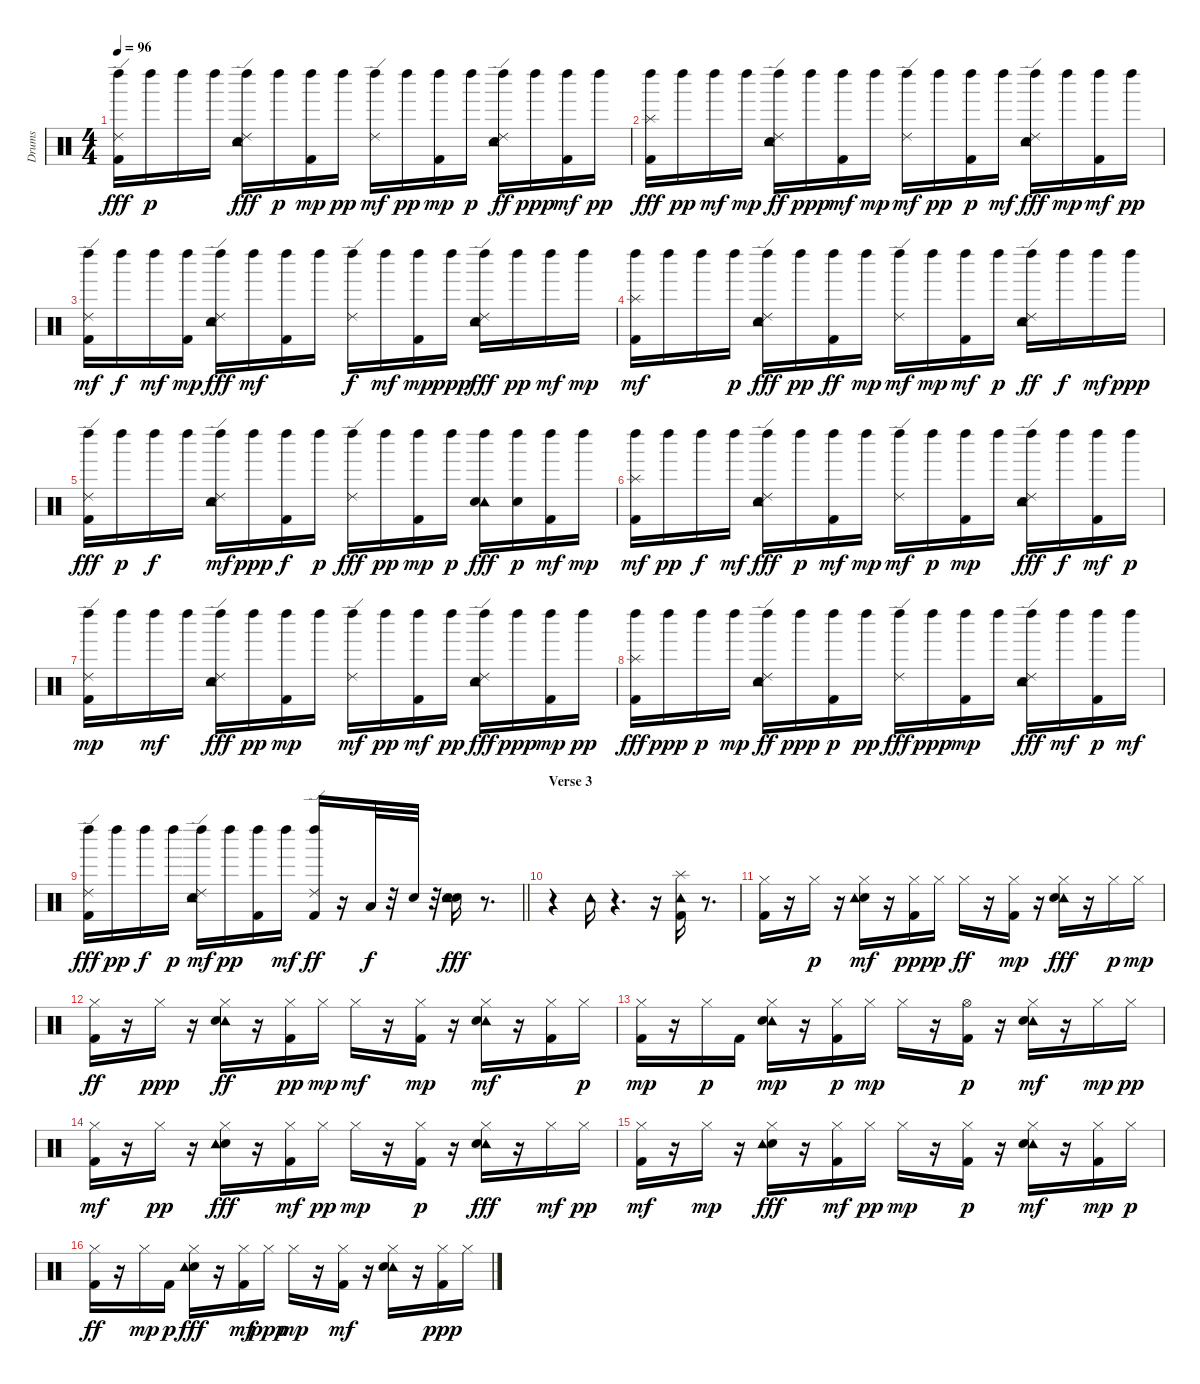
\track ("Drums" "Drums") {instrument percussion}
\staff {score}
\articulation defaults
\ts (4 4)
\tempo 96
\clef neutral
\ks c
("Ride (edge) 2" "Left Maraca (hit)" "Kick (hit) 2").16{dy fff} "Left Maraca (hit)".16{dy p} "Left Maraca (hit)".16 "Left Maraca (hit)".16 ("Left Maraca (hit)" "Electric Snare (hit)" "Tambourine (hit)" "Ride (edge) 2").16{dy fff} "Left Maraca (hit)".16{dy p} ("Kick (hit) 2" "Left Maraca (hit)").16{dy mp} "Left Maraca (hit)".16{dy pp} ("Ride (edge) 2" "Left Maraca (hit)").16{dy mf} "Left Maraca (hit)".16{dy pp} ("Kick (hit) 2" "Left Maraca (hit)").16{dy mp} "Left Maraca (hit)".16{dy p} ("Ride (edge) 2" "Tambourine (hit)" "Electric Snare (hit)" "Left Maraca (hit)").16{dy ff} "Left Maraca (hit)".16{dy ppp} ("Kick (hit) 2" "Left Maraca (hit)").16{dy mf} "Left Maraca (hit)".16{dy pp} |
("Left Maraca (hit)" "Splash (hit)" "Kick (hit) 2").16{dy fff} "Left Maraca (hit)".16{dy pp} "Left Maraca (hit)".16{dy mf} "Left Maraca (hit)".16{dy mp} ("Ride (edge) 2" "Electric Snare (hit)" "Tambourine (hit)" "Left Maraca (hit)").16{dy ff} "Left Maraca (hit)".16{dy ppp} ("Kick (hit) 2" "Left Maraca (hit)").16{dy mf} "Left Maraca (hit)".16{dy mp} ("Ride (edge) 2" "Left Maraca (hit)").16{dy mf} "Left Maraca (hit)".16{dy pp} ("Kick (hit) 2" "Left Maraca (hit)").16{dy p} "Left Maraca (hit)".16{dy mf} ("Tambourine (hit)" "Electric Snare (hit)" "Ride (edge) 2" "Left Maraca (hit)").16{dy fff} "Left Maraca (hit)".16{dy mp} ("Kick (hit) 2" "Left Maraca (hit)").16{dy mf} "Left Maraca (hit)".16{dy pp} |
("Left Maraca (hit)" "Kick (hit) 2" "Ride (edge) 2").16{dy mf} "Left Maraca (hit)".16{dy f} "Left Maraca (hit)".16{dy mf} ("Kick (hit) 2" "Left Maraca (hit)").16{dy mp} ("Ride (edge) 2" "Left Maraca (hit)" "Electric Snare (hit)" "Tambourine (hit)").16{dy fff} "Left Maraca (hit)".16{dy mf} ("Left Maraca (hit)" "Kick (hit) 2").16 "Left Maraca (hit)".16 ("Ride (edge) 2" "Left Maraca (hit)").16{dy f} "Left Maraca (hit)".16{dy mf} ("Left Maraca (hit)" "Kick (hit) 2").16{dy mp} "Left Maraca (hit)".16{dy ppp} ("Tambourine (hit)" "Electric Snare (hit)" "Left Maraca (hit)" "Ride (edge) 2").16{dy fff} "Left Maraca (hit)".16{dy pp} "Left Maraca (hit)".16{dy mf} "Left Maraca (hit)".16{dy mp} |
("Left Maraca (hit)" "Kick (hit) 2" "Splash (hit)").16{dy mf} "Left Maraca (hit)".16 "Left Maraca (hit)".16 "Left Maraca (hit)".16{dy p} ("Left Maraca (hit)" "Tambourine (hit)" "Electric Snare (hit)" "Ride (edge) 2").16{dy fff} "Left Maraca (hit)".16{dy pp} ("Left Maraca (hit)" "Kick (hit) 2").16{dy ff} "Left Maraca (hit)".16{dy mp} ("Ride (edge) 2" "Left Maraca (hit)").16{dy mf} "Left Maraca (hit)".16{dy mp} ("Kick (hit) 2" "Left Maraca (hit)").16{dy mf} "Left Maraca (hit)".16{dy p} ("Ride (edge) 2" "Tambourine (hit)" "Electric Snare (hit)" "Left Maraca (hit)").16{dy ff} "Left Maraca (hit)".16{dy f} "Left Maraca (hit)".16{dy mf} "Left Maraca (hit)".16{dy ppp} |
("Ride (edge) 2" "Kick (hit) 2" "Left Maraca (hit)").16{dy fff} "Left Maraca (hit)".16{dy p} "Left Maraca (hit)".16{dy f} "Left Maraca (hit)".16 ("Ride (edge) 2" "Tambourine (hit)" "Electric Snare (hit)" "Left Maraca (hit)").16{dy mf} "Left Maraca (hit)".16{dy ppp} ("Left Maraca (hit)" "Kick (hit) 2").16{dy f} "Left Maraca (hit)".16{dy p} ("Ride (edge) 2" "Left Maraca (hit)").16{dy fff} "Left Maraca (hit)".16{dy pp} ("Left Maraca (hit)" "Kick (hit) 2").16{dy mp} "Left Maraca (hit)".16{dy p} ("Left Maraca (hit)" "Tambourine (hit)" "Electric Snare (hit)").16{dy fff} ("Electric Snare (hit)" "Left Maraca (hit)").16{dy p} ("Kick (hit) 2" "Left Maraca (hit)").16{dy mf} "Left Maraca (hit)".16{dy mp} |
("Splash (hit)" "Kick (hit) 2" "Left Maraca (hit)").16{dy mf} "Left Maraca (hit)".16{dy pp} "Left Maraca (hit)".16{dy f} "Left Maraca (hit)".16{dy mf} ("Left Maraca (hit)" "Ride (edge) 2" "Electric Snare (hit)" "Tambourine (hit)").16{dy fff} "Left Maraca (hit)".16{dy p} ("Left Maraca (hit)" "Kick (hit) 2").16{dy mf} "Left Maraca (hit)".16{dy mp} ("Left Maraca (hit)" "Ride (edge) 2").16{dy mf} "Left Maraca (hit)".16{dy p} ("Left Maraca (hit)" "Kick (hit) 2").16{dy mp} "Left Maraca (hit)".16 ("Tambourine (hit)" "Electric Snare (hit)" "Left Maraca (hit)" "Ride (edge) 2").16{dy fff} "Left Maraca (hit)".16{dy f} ("Kick (hit) 2" "Left Maraca (hit)").16{dy mf} "Left Maraca (hit)".16{dy p} |
("Kick (hit) 2" "Ride (edge) 2" "Left Maraca (hit)").16{dy mp} "Left Maraca (hit)".16 "Left Maraca (hit)".16{dy mf} "Left Maraca (hit)".16 ("Left Maraca (hit)" "Electric Snare (hit)" "Tambourine (hit)" "Ride (edge) 2").16{dy fff} "Left Maraca (hit)".16{dy pp} ("Left Maraca (hit)" "Kick (hit) 2").16{dy mp} "Left Maraca (hit)".16 ("Left Maraca (hit)" "Ride (edge) 2").16{dy mf} "Left Maraca (hit)".16{dy pp} ("Kick (hit) 2" "Left Maraca (hit)").16{dy mf} "Left Maraca (hit)".16{dy pp} ("Ride (edge) 2" "Tambourine (hit)" "Electric Snare (hit)" "Left Maraca (hit)").16{dy fff} "Left Maraca (hit)".16{dy ppp} ("Left Maraca (hit)" "Kick (hit) 2").16{dy mp} "Left Maraca (hit)".16{dy pp} |
("Left Maraca (hit)" "Splash (hit)" "Kick (hit) 2").16{dy fff} "Left Maraca (hit)".16{dy ppp} "Left Maraca (hit)".16{dy p} "Left Maraca (hit)".16{dy mp} ("Left Maraca (hit)" "Tambourine (hit)" "Electric Snare (hit)" "Ride (edge) 2").16{dy ff} "Left Maraca (hit)".16{dy ppp} ("Left Maraca (hit)" "Kick (hit) 2").16{dy p} "Left Maraca (hit)".16{dy pp} ("Ride (edge) 2" "Left Maraca (hit)").16{dy fff} "Left Maraca (hit)".16{dy ppp} ("Kick (hit) 2" "Left Maraca (hit)").16{dy mp} "Left Maraca (hit)".16 ("Tambourine (hit)" "Electric Snare (hit)" "Left Maraca (hit)" "Ride (edge) 2").16{dy fff} "Left Maraca (hit)".16{dy mf} ("Left Maraca (hit)" "Kick (hit) 2").16{dy p} "Left Maraca (hit)".16{dy mf} |
\barLineRight lightlight
("Left Maraca (hit)" "Kick (hit) 2" "Ride (edge) 2").16{dy fff} "Left Maraca (hit)".16{dy pp} "Left Maraca (hit)".16{dy f} "Left Maraca (hit)".16{dy p} ("Left Maraca (hit)" "Tambourine (hit)" "Electric Snare (hit)" "Ride (edge) 2").16{dy mf} "Left Maraca (hit)".16{dy pp} ("Left Maraca (hit)" "Kick (hit) 2").16 "Left Maraca (hit)".16{dy mf} ("Left Maraca (hit)" "Ride (edge) 2" "Kick (hit) 2").16{dy ff} r.16 "Low Floor Tom (hit)".32{dy f} r.32 "Electric Snare (hit)".32 r.32 ("Snare (hit) 2" "Electric Snare (hit)" "Tambourine (hit)").16{dy fff} r.8{d} |
\section ("" "Verse 3")
r.4 "Tambourine (hit)".16 r.4{d} r.16 ("Tambourine (hit)" "Splash (hit)" "Kick (hit) 2").16 r.8{d} |
("Kick (hit) 2" "Hi-Hat (closed)").16 r.16 "Hi-Hat (closed)".16{dy p} r.16 ("Electric Snare (hit)" "Tambourine (hit)" "Hi-Hat (closed)").16{dy mf} r.16 ("Kick (hit) 2" "Hi-Hat (closed)").16{dy ppp} "Hi-Hat (closed)".16{dy p} "Hi-Hat (closed)".16{dy ff} r.16 ("Kick (hit) 2" "Hi-Hat (closed)").16{dy mp} r.16 ("Tambourine (hit)" "Electric Snare (hit)" "Hi-Hat (closed)").16{dy fff} r.16 "Hi-Hat (closed)".16{dy p} "Hi-Hat (closed)".16{dy mp} |
("Hi-Hat (closed)" "Kick (hit) 2").16{dy ff} r.16 "Hi-Hat (closed)".16{dy ppp} r.16 ("Hi-Hat (closed)" "Tambourine (hit)" "Electric Snare (hit)").16{dy ff} r.16 ("Kick (hit) 2" "Hi-Hat (closed)").16{dy pp} "Hi-Hat (closed)".16{dy mp} "Hi-Hat (closed)".16{dy mf} r.16 ("Kick (hit) 2" "Hi-Hat (closed)").16{dy mp} r.16 ("Tambourine (hit)" "Electric Snare (hit)" "Hi-Hat (closed)").16{dy mf} r.16 ("Kick (hit) 2" "Hi-Hat (closed)").16 "Hi-Hat (closed)".16{dy p} |
("Kick (hit) 2" "Hi-Hat (closed)").16{dy mp} r.16 "Hi-Hat (closed)".16{dy p} "Kick (hit) 2".16 ("Tambourine (hit)" "Electric Snare (hit)" "Hi-Hat (closed)").16{dy mp} r.16 ("Kick (hit) 2" "Hi-Hat (closed)").16{dy p} "Hi-Hat (closed)".16{dy mp} "Hi-Hat (closed)".16 r.16 ("Kick (hit) 2" "Hi-Hat (open)").16{dy p} r.16 ("Tambourine (hit)" "Electric Snare (hit)" "Hi-Hat (closed)").16{dy mf} r.16 "Hi-Hat (closed)".16{dy mp} "Hi-Hat (closed)".16{dy pp} |
("Kick (hit) 2" "Hi-Hat (closed)").16{dy mf} r.16 "Hi-Hat (closed)".16{dy pp} r.16 ("Hi-Hat (closed)" "Electric Snare (hit)" "Tambourine (hit)").16{dy fff} r.16 ("Kick (hit) 2" "Hi-Hat (closed)").16{dy mf} "Hi-Hat (closed)".16{dy pp} "Hi-Hat (closed)".16{dy mp} r.16 ("Kick (hit) 2" "Hi-Hat (closed)").16{dy p} r.16 ("Tambourine (hit)" "Electric Snare (hit)" "Hi-Hat (closed)").16{dy fff} r.16 "Hi-Hat (closed)".16{dy mf} "Hi-Hat (closed)".16{dy pp} |
("Kick (hit) 2" "Hi-Hat (closed)").16{dy mf} r.16 "Hi-Hat (closed)".16{dy mp} r.16 ("Electric Snare (hit)" "Tambourine (hit)" "Hi-Hat (closed)").16{dy fff} r.16 ("Hi-Hat (closed)" "Kick (hit) 2").16{dy mf} "Hi-Hat (closed)".16{dy pp} "Hi-Hat (closed)".16{dy mp} r.16 ("Kick (hit) 2" "Hi-Hat (closed)").16{dy p} r.16 ("Tambourine (hit)" "Electric Snare (hit)" "Hi-Hat (closed)").16{dy mf} r.16 ("Hi-Hat (closed)" "Kick (hit) 2").16{dy mp} "Hi-Hat (closed)".16{dy p} |
("Hi-Hat (closed)" "Kick (hit) 2").16{dy ff} r.16 "Hi-Hat (closed)".16{dy mp} "Kick (hit) 2".16{dy p} ("Hi-Hat (closed)" "Electric Snare (hit)" "Tambourine (hit)").16{dy fff} r.16 ("Hi-Hat (closed)" "Kick (hit) 2").16{dy mf} "Hi-Hat (closed)".16{dy ppp} "Hi-Hat (closed)".16{dy mp} r.16 ("Kick (hit) 2" "Hi-Hat (closed)").16{dy mf} r.16 ("Tambourine (hit)" "Electric Snare (hit)" "Hi-Hat (closed)").16 r.16 ("Hi-Hat (closed)" "Kick (hit) 2").16{dy ppp} "Hi-Hat (closed)".16
